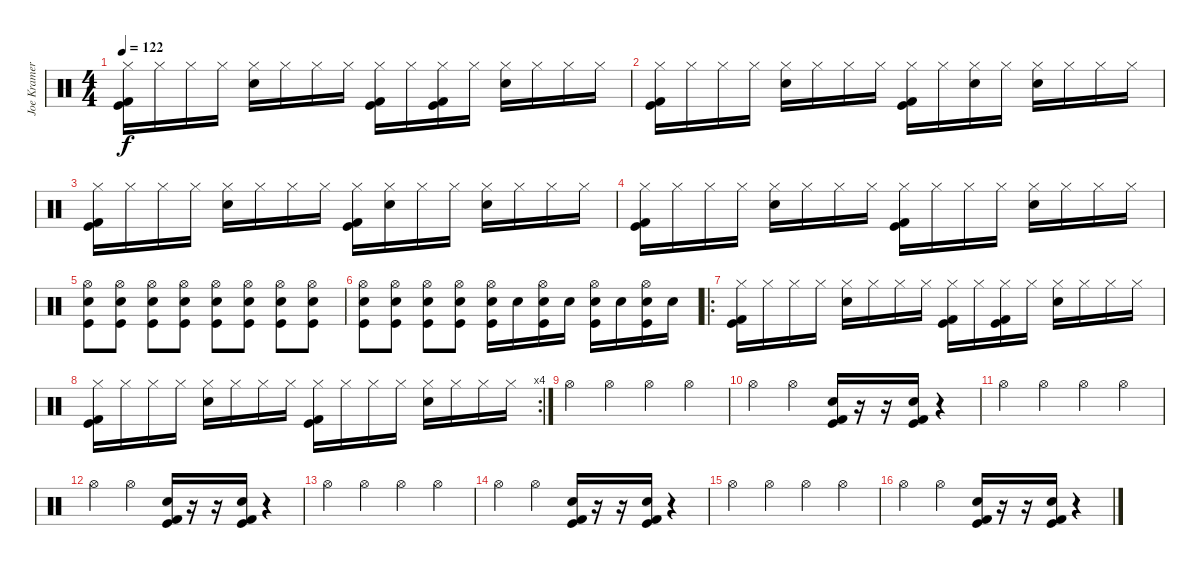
\track ("Joe Kramer" "Joe Kramer") {instrument percussion}
\staff {score}
\articulation defaults
\ts (4 4)
\tempo 122
\clef neutral
\ks c
("Hi-Hat (closed)" "Kick (hit)" "Kick (hit) 2").16{dy f} "Hi-Hat (closed)".16 "Hi-Hat (closed)".16 "Hi-Hat (closed)".16 ("Hi-Hat (closed)" "Snare (hit) 2").16 "Hi-Hat (closed)".16 "Hi-Hat (closed)".16 "Hi-Hat (closed)".16 ("Hi-Hat (closed)" "Kick (hit)" "Kick (hit) 2").16 "Hi-Hat (closed)".16 ("Hi-Hat (closed)" "Kick (hit)" "Kick (hit) 2").16 "Hi-Hat (closed)".16 ("Hi-Hat (closed)" "Snare (hit) 2").16 "Hi-Hat (closed)".16 "Hi-Hat (closed)".16 "Hi-Hat (closed)".16 |
("Hi-Hat (closed)" "Kick (hit)" "Kick (hit) 2").16 "Hi-Hat (closed)".16 "Hi-Hat (closed)".16 "Hi-Hat (closed)".16 ("Hi-Hat (closed)" "Snare (hit) 2").16 "Hi-Hat (closed)".16 "Hi-Hat (closed)".16 "Hi-Hat (closed)".16 ("Hi-Hat (closed)" "Kick (hit)" "Kick (hit) 2").16 "Hi-Hat (closed)".16 ("Hi-Hat (closed)" "Snare (hit) 2").16 "Hi-Hat (closed)".16 ("Hi-Hat (closed)" "Snare (hit) 2").16 "Hi-Hat (closed)".16 "Hi-Hat (closed)".16 "Hi-Hat (closed)".16 |
("Hi-Hat (closed)" "Kick (hit)" "Kick (hit) 2").16 "Hi-Hat (closed)".16 "Hi-Hat (closed)".16 "Hi-Hat (closed)".16 ("Hi-Hat (closed)" "Snare (hit) 2").16 "Hi-Hat (closed)".16 "Hi-Hat (closed)".16 "Hi-Hat (closed)".16 ("Hi-Hat (closed)" "Kick (hit)" "Kick (hit) 2").16 ("Hi-Hat (closed)" "Snare (hit) 2").16 "Hi-Hat (closed)".16 "Hi-Hat (closed)".16 ("Hi-Hat (closed)" "Snare (hit) 2").16 "Hi-Hat (closed)".16 "Hi-Hat (closed)".16 "Hi-Hat (closed)".16 |
("Hi-Hat (closed)" "Kick (hit)" "Kick (hit) 2").16 "Hi-Hat (closed)".16 "Hi-Hat (closed)".16 "Hi-Hat (closed)".16 ("Hi-Hat (closed)" "Snare (hit) 2").16 "Hi-Hat (closed)".16 "Hi-Hat (closed)".16 "Hi-Hat (closed)".16 ("Hi-Hat (closed)" "Kick (hit)" "Kick (hit) 2").16 "Hi-Hat (closed)".16 "Hi-Hat (closed)".16 "Hi-Hat (closed)".16 ("Hi-Hat (closed)" "Snare (hit) 2").16 "Hi-Hat (closed)".16 "Hi-Hat (closed)".16 "Hi-Hat (closed)".16 |
("Kick (hit)" "Snare (hit) 2" "Hi-Hat (open)").8 ("Kick (hit)" "Snare (hit) 2" "Hi-Hat (open)").8 ("Kick (hit)" "Snare (hit) 2" "Hi-Hat (open)").8 ("Kick (hit)" "Snare (hit) 2" "Hi-Hat (open)").8 ("Kick (hit)" "Snare (hit) 2" "Hi-Hat (open)").8 ("Kick (hit)" "Snare (hit) 2" "Hi-Hat (open)").8 ("Kick (hit)" "Snare (hit) 2" "Hi-Hat (open)").8 ("Kick (hit)" "Snare (hit) 2" "Hi-Hat (open)").8 |
("Kick (hit)" "Snare (hit) 2" "Hi-Hat (open)").8 ("Kick (hit)" "Snare (hit) 2" "Hi-Hat (open)").8 ("Kick (hit)" "Snare (hit) 2" "Hi-Hat (open)").8 ("Kick (hit)" "Snare (hit) 2" "Hi-Hat (open)").8 ("Kick (hit)" "Snare (hit) 2" "Hi-Hat (open)").16 "Snare (hit) 2".16 ("Kick (hit)" "Snare (hit) 2" "Hi-Hat (open)").16 "Snare (hit) 2".16 ("Kick (hit)" "Snare (hit) 2" "Hi-Hat (open)").16 "Snare (hit) 2".16 ("Kick (hit)" "Snare (hit) 2" "Hi-Hat (open)").16 "Snare (hit) 2".16 |
\ro
("Hi-Hat (closed)" "Kick (hit)" "Kick (hit) 2").16 "Hi-Hat (closed)".16 "Hi-Hat (closed)".16 "Hi-Hat (closed)".16 ("Hi-Hat (closed)" "Snare (hit) 2").16 "Hi-Hat (closed)".16 "Hi-Hat (closed)".16 "Hi-Hat (closed)".16 ("Hi-Hat (closed)" "Kick (hit)" "Kick (hit) 2").16 "Hi-Hat (closed)".16 ("Hi-Hat (closed)" "Kick (hit)" "Kick (hit) 2").16 "Hi-Hat (closed)".16 ("Hi-Hat (closed)" "Snare (hit) 2").16 "Hi-Hat (closed)".16 "Hi-Hat (closed)".16 "Hi-Hat (closed)".16 |
\rc 4
("Hi-Hat (closed)" "Kick (hit)" "Kick (hit) 2").16 "Hi-Hat (closed)".16 "Hi-Hat (closed)".16 "Hi-Hat (closed)".16 ("Hi-Hat (closed)" "Snare (hit) 2").16 "Hi-Hat (closed)".16 "Hi-Hat (closed)".16 "Hi-Hat (closed)".16 ("Hi-Hat (closed)" "Kick (hit)" "Kick (hit) 2").16 "Hi-Hat (closed)".16 "Hi-Hat (closed)".16 "Hi-Hat (closed)".16 ("Hi-Hat (closed)" "Snare (hit) 2").16 "Hi-Hat (closed)".16 "Hi-Hat (closed)".16 "Hi-Hat (closed)".16 |
"Hi-Hat (open)".4 "Hi-Hat (open)".4 "Hi-Hat (open)".4 "Hi-Hat (open)".4 |
"Hi-Hat (open)".4 "Hi-Hat (open)".4 ("Kick (hit)" "Snare (hit) 2" "Kick (hit) 2").16 r.16 r.16 ("Kick (hit)" "Snare (hit) 2" "Kick (hit) 2").16 r.4 |
"Hi-Hat (open)".4 "Hi-Hat (open)".4 "Hi-Hat (open)".4 "Hi-Hat (open)".4 |
"Hi-Hat (open)".4 "Hi-Hat (open)".4 ("Kick (hit)" "Snare (hit) 2" "Kick (hit) 2").16 r.16 r.16 ("Kick (hit)" "Snare (hit) 2" "Kick (hit) 2").16 r.4 |
"Hi-Hat (open)".4 "Hi-Hat (open)".4 "Hi-Hat (open)".4 "Hi-Hat (open)".4 |
"Hi-Hat (open)".4 "Hi-Hat (open)".4 ("Kick (hit)" "Snare (hit) 2" "Kick (hit) 2").16 r.16 r.16 ("Kick (hit)" "Snare (hit) 2" "Kick (hit) 2").16 r.4 |
"Hi-Hat (open)".4 "Hi-Hat (open)".4 "Hi-Hat (open)".4 "Hi-Hat (open)".4 |
"Hi-Hat (open)".4 "Hi-Hat (open)".4 ("Kick (hit)" "Snare (hit) 2" "Kick (hit) 2").16 r.16 r.16 ("Kick (hit)" "Snare (hit) 2" "Kick (hit) 2").16 r.4
